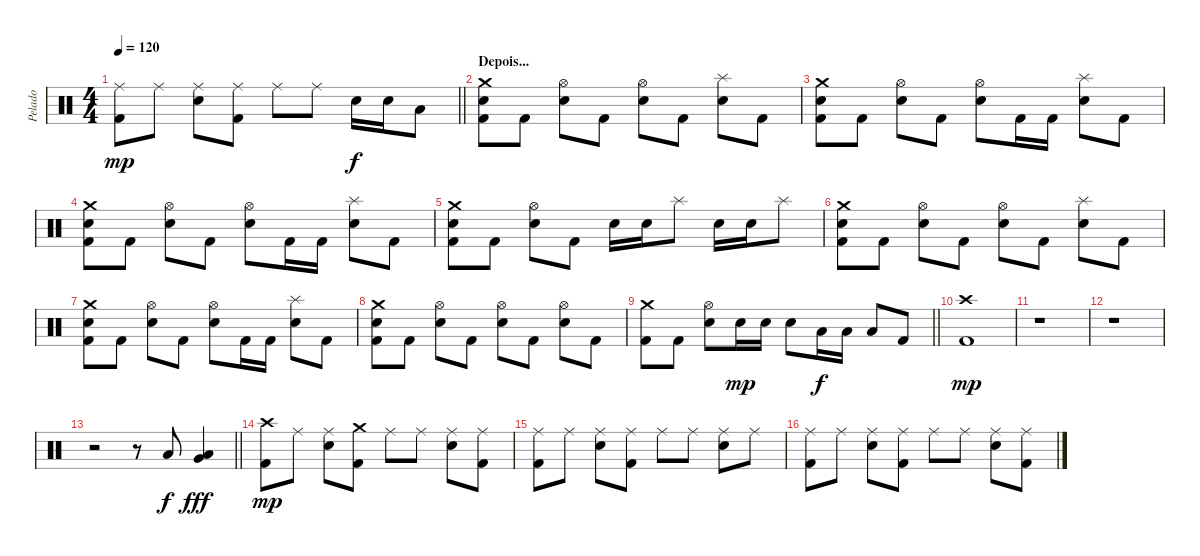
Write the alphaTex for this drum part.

\track ("Pelado" "Pelado") {instrument percussion}
\staff {score}
\articulation defaults
\ts (4 4)
\tempo 120
\clef neutral
\barLineRight lightlight
\ks c
("Ride (middle)" "Kick (hit) 2").8{dy mp} "Ride (middle)".8 ("Ride (middle)" "Electric Snare (hit)").8 ("Ride (middle)" "Kick (hit) 2").8 "Ride (middle)".8 "Ride (middle)".8 "Electric Snare (hit)".16{dy f} "Electric Snare (hit)".16 "Low Tom (hit)".8 |
\section ("" "Depois...")
("Crash medium (hit)" "Electric Snare (hit)" "Kick (hit) 2").8 "Kick (hit) 2".8 ("Hi-Hat (open)" "Electric Snare (hit)").8 "Kick (hit) 2".8 ("Hi-Hat (open)" "Electric Snare (hit)").8 "Kick (hit) 2".8 ("Splash (hit)" "Electric Snare (hit)").8 "Kick (hit) 2".8 |
("Crash medium (hit)" "Electric Snare (hit)" "Kick (hit) 2").8 "Kick (hit) 2".8 ("Hi-Hat (open)" "Electric Snare (hit)").8 "Kick (hit) 2".8 ("Hi-Hat (open)" "Electric Snare (hit)").8 "Kick (hit) 2".16 "Kick (hit) 2".16 ("Splash (hit)" "Electric Snare (hit)").8 "Kick (hit) 2".8 |
("Crash medium (hit)" "Electric Snare (hit)" "Kick (hit) 2").8 "Kick (hit) 2".8 ("Hi-Hat (open)" "Electric Snare (hit)").8 "Kick (hit) 2".8 ("Hi-Hat (open)" "Electric Snare (hit)").8 "Kick (hit) 2".16 "Kick (hit) 2".16 ("Splash (hit)" "Electric Snare (hit)").8 "Kick (hit) 2".8 |
("Crash medium (hit)" "Electric Snare (hit)" "Kick (hit) 2").8 "Kick (hit) 2".8 ("Hi-Hat (open)" "Electric Snare (hit)").8 "Kick (hit) 2".8 "Electric Snare (hit)".16 "Electric Snare (hit)".16 "Splash (hit)".8 "Electric Snare (hit)".16 "Electric Snare (hit)".16 "Splash (hit)".8 |
("Crash medium (hit)" "Electric Snare (hit)" "Kick (hit) 2").8 "Kick (hit) 2".8 ("Hi-Hat (open)" "Electric Snare (hit)").8 "Kick (hit) 2".8 ("Hi-Hat (open)" "Electric Snare (hit)").8 "Kick (hit) 2".8 ("Splash (hit)" "Electric Snare (hit)").8 "Kick (hit) 2".8 |
("Crash medium (hit)" "Electric Snare (hit)" "Kick (hit) 2").8 "Kick (hit) 2".8 ("Hi-Hat (open)" "Electric Snare (hit)").8 "Kick (hit) 2".8 ("Hi-Hat (open)" "Electric Snare (hit)").8 "Kick (hit) 2".16 "Kick (hit) 2".16 ("Splash (hit)" "Electric Snare (hit)").8 "Kick (hit) 2".8 |
("Crash medium (hit)" "Electric Snare (hit)" "Kick (hit) 2").8 "Kick (hit) 2".8 ("Hi-Hat (open)" "Electric Snare (hit)").8 "Kick (hit) 2".8 ("Hi-Hat (open)" "Electric Snare (hit)").8 "Kick (hit) 2".8 ("Hi-Hat (open)" "Electric Snare (hit)").8 "Kick (hit) 2".8 |
\barLineRight lightlight
("Crash medium (hit)" "Kick (hit) 2").8 "Kick (hit) 2".8 ("Hi-Hat (open)" "Electric Snare (hit)").8 "Electric Snare (hit)".16{dy mp} "Electric Snare (hit)".16 "Electric Snare (hit)".8 "Low Tom (hit)".16{dy f} "Low Tom (hit)".16 "Low Tom (hit)".8 "Kick (hit) 2".8 |
("Crash high (hit)" "Kick (hit) 2").1{dy mp} |
r.1 |
r.1 |
\barLineRight lightlight
r.2 r.8 "Low Tom (hit)".8{dy f} ("Low Tom (hit)" "Very Low Tom (hit)").4{dy fff} |
("Crash high (hit)" "Kick (hit) 2").8{dy mp} "Ride (middle)".8 ("Ride (middle)" "Electric Snare (hit)").8 ("Crash medium (hit)" "Kick (hit) 2").8 "Ride (middle)".8 "Ride (middle)".8 ("Ride (middle)" "Electric Snare (hit)").8 ("Ride (middle)" "Kick (hit) 2").8 |
("Ride (middle)" "Kick (hit) 2").8 "Ride (middle)".8 ("Ride (middle)" "Electric Snare (hit)").8 ("Ride (middle)" "Kick (hit) 2").8 "Ride (middle)".8 "Ride (middle)".8 ("Ride (middle)" "Electric Snare (hit)").8 "Ride (middle)".8 |
("Ride (middle)" "Kick (hit) 2").8 "Ride (middle)".8 ("Ride (middle)" "Electric Snare (hit)").8 ("Ride (middle)" "Kick (hit) 2").8 "Ride (middle)".8 "Ride (middle)".8 ("Ride (middle)" "Electric Snare (hit)").8 ("Ride (middle)" "Kick (hit) 2").8
